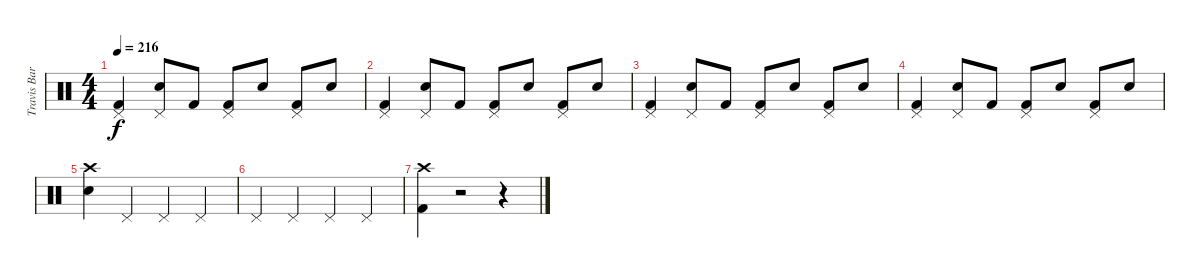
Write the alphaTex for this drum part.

\track ("Travis Barker (Drums)" "Travis Bar") {instrument percussion}
\staff {score}
\articulation defaults
\ts (4 4)
\tempo 216
\clef neutral
\ks c
("Pedal Hi-Hat (hit)" "Kick (hit) 2").4{dy f} ("Pedal Hi-Hat (hit)" "Electric Snare (hit)").8 "Kick (hit) 2".8 ("Pedal Hi-Hat (hit)" "Kick (hit) 2").8 "Electric Snare (hit)".8 ("Pedal Hi-Hat (hit)" "Kick (hit) 2").8 "Electric Snare (hit)".8 |
("Pedal Hi-Hat (hit)" "Kick (hit) 2").4 ("Pedal Hi-Hat (hit)" "Electric Snare (hit)").8 "Kick (hit) 2".8 ("Pedal Hi-Hat (hit)" "Kick (hit) 2").8 "Electric Snare (hit)".8 ("Pedal Hi-Hat (hit)" "Kick (hit) 2").8 "Electric Snare (hit)".8 |
("Pedal Hi-Hat (hit)" "Kick (hit) 2").4 ("Pedal Hi-Hat (hit)" "Electric Snare (hit)").8 "Kick (hit) 2".8 ("Pedal Hi-Hat (hit)" "Kick (hit) 2").8 "Electric Snare (hit)".8 ("Pedal Hi-Hat (hit)" "Kick (hit) 2").8 "Electric Snare (hit)".8 |
("Pedal Hi-Hat (hit)" "Kick (hit) 2").4 ("Pedal Hi-Hat (hit)" "Electric Snare (hit)").8 "Kick (hit) 2".8 ("Pedal Hi-Hat (hit)" "Kick (hit) 2").8 "Electric Snare (hit)".8 ("Pedal Hi-Hat (hit)" "Kick (hit) 2").8 "Electric Snare (hit)".8 |
("Crash high (hit)" "Electric Snare (hit)").4 "Pedal Hi-Hat (hit)".4 "Pedal Hi-Hat (hit)".4 "Pedal Hi-Hat (hit)".4 |
"Pedal Hi-Hat (hit)".4 "Pedal Hi-Hat (hit)".4 "Pedal Hi-Hat (hit)".4 "Pedal Hi-Hat (hit)".4 |
("Crash high (hit)" "Kick (hit) 2").4 r.2 r.4
